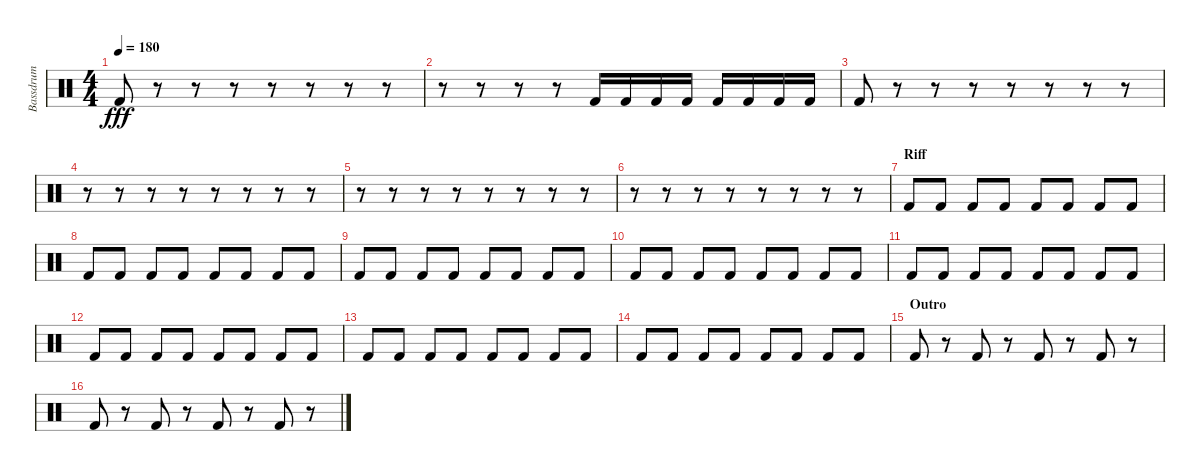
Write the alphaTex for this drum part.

\track ("Bassdrum" "Bassdrum") {instrument percussion}
\staff {score}
\articulation defaults
\ts (4 4)
\tempo 180
\clef neutral
\ks c "Kick (hit) 2".8{dy fff}
r.8 r.8 r.8 r.8 r.8 r.8 r.8 |
r.8 r.8 r.8 r.8 "Kick (hit) 2".16 "Kick (hit) 2".16 "Kick (hit) 2".16 "Kick (hit) 2".16 "Kick (hit) 2".16 "Kick (hit) 2".16 "Kick (hit) 2".16 "Kick (hit) 2".16 |
"Kick (hit) 2".8 r.8 r.8 r.8 r.8 r.8 r.8 r.8 |
r.8 r.8 r.8 r.8 r.8 r.8 r.8 r.8 |
r.8 r.8 r.8 r.8 r.8 r.8 r.8 r.8 |
r.8 r.8 r.8 r.8 r.8 r.8 r.8 r.8 |
\section ("" "Riff")
"Kick (hit) 2".8 "Kick (hit) 2".8 "Kick (hit) 2".8 "Kick (hit) 2".8 "Kick (hit) 2".8 "Kick (hit) 2".8 "Kick (hit) 2".8 "Kick (hit) 2".8 |
"Kick (hit) 2".8 "Kick (hit) 2".8 "Kick (hit) 2".8 "Kick (hit) 2".8 "Kick (hit) 2".8 "Kick (hit) 2".8 "Kick (hit) 2".8 "Kick (hit) 2".8 |
"Kick (hit) 2".8 "Kick (hit) 2".8 "Kick (hit) 2".8 "Kick (hit) 2".8 "Kick (hit) 2".8 "Kick (hit) 2".8 "Kick (hit) 2".8 "Kick (hit) 2".8 |
"Kick (hit) 2".8 "Kick (hit) 2".8 "Kick (hit) 2".8 "Kick (hit) 2".8 "Kick (hit) 2".8 "Kick (hit) 2".8 "Kick (hit) 2".8 "Kick (hit) 2".8 |
"Kick (hit) 2".8 "Kick (hit) 2".8 "Kick (hit) 2".8 "Kick (hit) 2".8 "Kick (hit) 2".8 "Kick (hit) 2".8 "Kick (hit) 2".8 "Kick (hit) 2".8 |
"Kick (hit) 2".8 "Kick (hit) 2".8 "Kick (hit) 2".8 "Kick (hit) 2".8 "Kick (hit) 2".8 "Kick (hit) 2".8 "Kick (hit) 2".8 "Kick (hit) 2".8 |
"Kick (hit) 2".8 "Kick (hit) 2".8 "Kick (hit) 2".8 "Kick (hit) 2".8 "Kick (hit) 2".8 "Kick (hit) 2".8 "Kick (hit) 2".8 "Kick (hit) 2".8 |
"Kick (hit) 2".8 "Kick (hit) 2".8 "Kick (hit) 2".8 "Kick (hit) 2".8 "Kick (hit) 2".8 "Kick (hit) 2".8 "Kick (hit) 2".8 "Kick (hit) 2".8 |
\section ("" "Outro")
"Kick (hit) 2".8 r.8 "Kick (hit) 2".8 r.8 "Kick (hit) 2".8 r.8 "Kick (hit) 2".8 r.8 |
"Kick (hit) 2".8 r.8 "Kick (hit) 2".8 r.8 "Kick (hit) 2".8 r.8 "Kick (hit) 2".8 r.8
